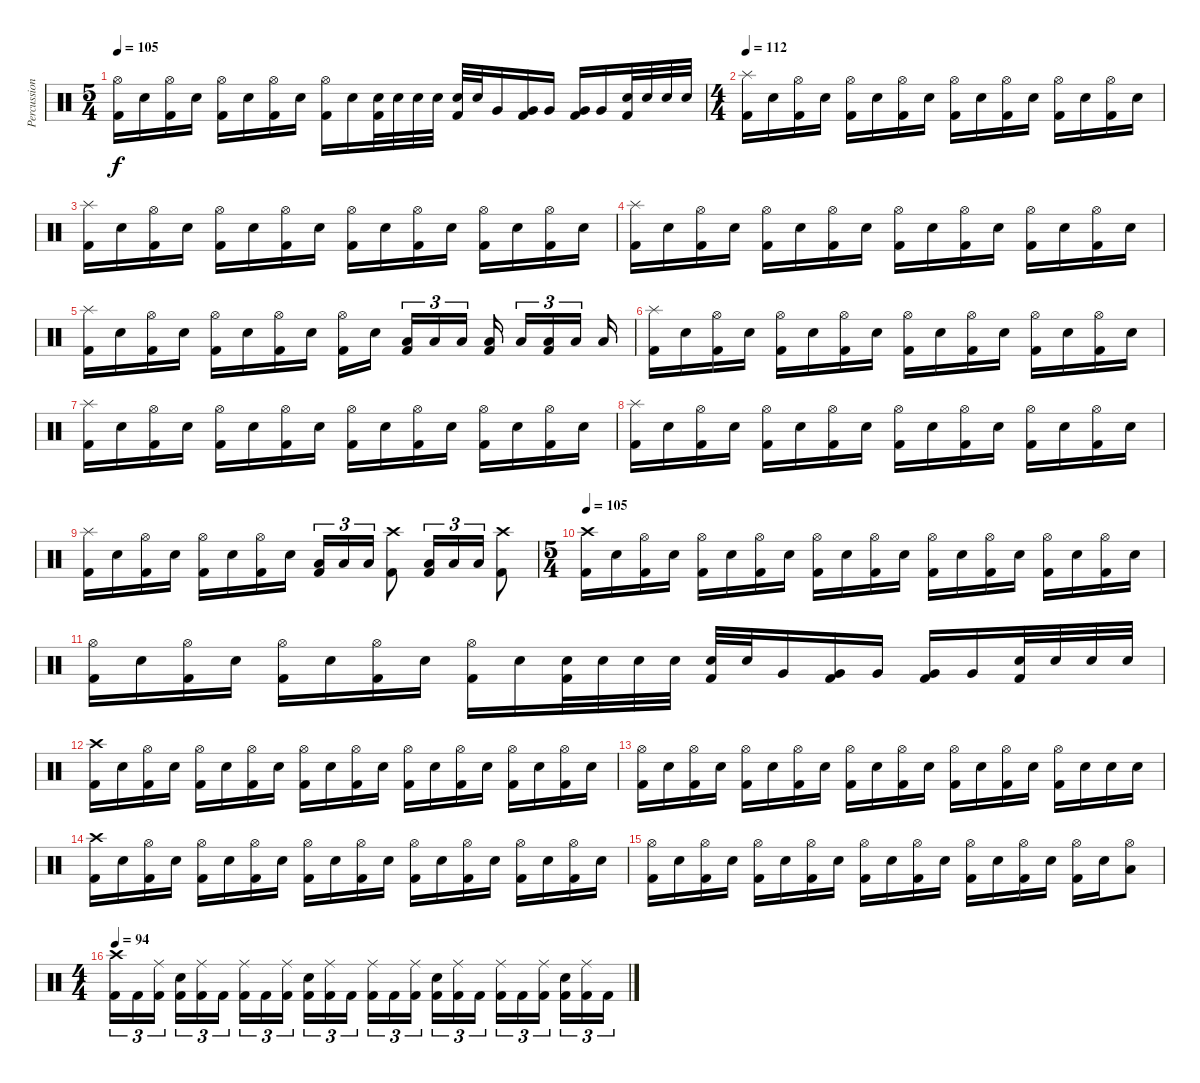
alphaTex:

\track ("Percussioni" "Percussion") {instrument percussion}
\staff {score}
\articulation defaults
\ts (5 4)
\tempo 105
\clef neutral
\ks c
("Hi-Hat (open)" "Kick (hit) 2").16{dy f} "Snare (hit) 2".16 ("Hi-Hat (open)" "Kick (hit) 2").16 "Snare (hit) 2".16 ("Hi-Hat (open)" "Kick (hit) 2").16 "Snare (hit) 2".16 ("Hi-Hat (open)" "Kick (hit) 2").16 "Snare (hit) 2".16 ("Hi-Hat (open)" "Kick (hit) 2").16 "Snare (hit) 2".16 ("Snare (hit) 2" "Kick (hit) 2").32 "Snare (hit) 2".32 "Snare (hit) 2".32 "Snare (hit) 2".32 ("Snare (hit) 2" "Kick (hit) 2").32 "Snare (hit) 2".32 "Very Low Tom (hit)".16 ("Very Low Tom (hit)" "Kick (hit) 2").16 "Very Low Tom (hit)".16 ("Very Low Tom (hit)" "Kick (hit) 2").16 "Very Low Tom (hit)".16 ("Snare (hit) 2" "Kick (hit) 2").32 "Snare (hit) 2".32 "Snare (hit) 2".32 "Snare (hit) 2".32 |
\ts (4 4)
\tempo 112
("Splash (hit)" "Kick (hit) 2").16 "Snare (hit) 2".16 ("Hi-Hat (open)" "Kick (hit) 2").16 "Snare (hit) 2".16 ("Hi-Hat (open)" "Kick (hit) 2").16 "Snare (hit) 2".16 ("Hi-Hat (open)" "Kick (hit) 2").16 "Snare (hit) 2".16 ("Hi-Hat (open)" "Kick (hit) 2").16 "Snare (hit) 2".16 ("Hi-Hat (open)" "Kick (hit) 2").16 "Snare (hit) 2".16 ("Hi-Hat (open)" "Kick (hit) 2").16 "Snare (hit) 2".16 ("Hi-Hat (open)" "Kick (hit) 2").16 "Snare (hit) 2".16 |
("Splash (hit)" "Kick (hit) 2").16 "Snare (hit) 2".16 ("Hi-Hat (open)" "Kick (hit) 2").16 "Snare (hit) 2".16 ("Hi-Hat (open)" "Kick (hit) 2").16 "Snare (hit) 2".16 ("Hi-Hat (open)" "Kick (hit) 2").16 "Snare (hit) 2".16 ("Hi-Hat (open)" "Kick (hit) 2").16 "Snare (hit) 2".16 ("Hi-Hat (open)" "Kick (hit) 2").16 "Snare (hit) 2".16 ("Hi-Hat (open)" "Kick (hit) 2").16 "Snare (hit) 2".16 ("Hi-Hat (open)" "Kick (hit) 2").16 "Snare (hit) 2".16 |
("Splash (hit)" "Kick (hit) 2").16 "Snare (hit) 2".16 ("Hi-Hat (open)" "Kick (hit) 2").16 "Snare (hit) 2".16 ("Hi-Hat (open)" "Kick (hit) 2").16 "Snare (hit) 2".16 ("Hi-Hat (open)" "Kick (hit) 2").16 "Snare (hit) 2".16 ("Hi-Hat (open)" "Kick (hit) 2").16 "Snare (hit) 2".16 ("Hi-Hat (open)" "Kick (hit) 2").16 "Snare (hit) 2".16 ("Hi-Hat (open)" "Kick (hit) 2").16 "Snare (hit) 2".16 ("Hi-Hat (open)" "Kick (hit) 2").16 "Snare (hit) 2".16 |
("Splash (hit)" "Kick (hit) 2").16 "Snare (hit) 2".16 ("Hi-Hat (open)" "Kick (hit) 2").16 "Snare (hit) 2".16 ("Hi-Hat (open)" "Kick (hit) 2").16 "Snare (hit) 2".16 ("Hi-Hat (open)" "Kick (hit) 2").16 "Snare (hit) 2".16 ("Hi-Hat (open)" "Kick (hit) 2").16 "Snare (hit) 2".16 ("Low Floor Tom (hit)" "Kick (hit) 2").16{tu (3 2)} "Low Floor Tom (hit)".16{tu (3 2)} "Low Floor Tom (hit)".16{tu (3 2)} ("Low Floor Tom (hit)" "Kick (hit) 2").16 "Low Floor Tom (hit)".16{tu (3 2)} ("Low Floor Tom (hit)" "Kick (hit) 2").16{tu (3 2)} "Low Floor Tom (hit)".16{tu (3 2)} "Low Floor Tom (hit)".16 |
("Splash (hit)" "Kick (hit) 2").16 "Snare (hit) 2".16 ("Hi-Hat (open)" "Kick (hit) 2").16 "Snare (hit) 2".16 ("Hi-Hat (open)" "Kick (hit) 2").16 "Snare (hit) 2".16 ("Hi-Hat (open)" "Kick (hit) 2").16 "Snare (hit) 2".16 ("Hi-Hat (open)" "Kick (hit) 2").16 "Snare (hit) 2".16 ("Hi-Hat (open)" "Kick (hit) 2").16 "Snare (hit) 2".16 ("Hi-Hat (open)" "Kick (hit) 2").16 "Snare (hit) 2".16 ("Hi-Hat (open)" "Kick (hit) 2").16 "Snare (hit) 2".16 |
("Splash (hit)" "Kick (hit) 2").16 "Snare (hit) 2".16 ("Hi-Hat (open)" "Kick (hit) 2").16 "Snare (hit) 2".16 ("Hi-Hat (open)" "Kick (hit) 2").16 "Snare (hit) 2".16 ("Hi-Hat (open)" "Kick (hit) 2").16 "Snare (hit) 2".16 ("Hi-Hat (open)" "Kick (hit) 2").16 "Snare (hit) 2".16 ("Hi-Hat (open)" "Kick (hit) 2").16 "Snare (hit) 2".16 ("Hi-Hat (open)" "Kick (hit) 2").16 "Snare (hit) 2".16 ("Hi-Hat (open)" "Kick (hit) 2").16 "Snare (hit) 2".16 |
("Splash (hit)" "Kick (hit) 2").16 "Snare (hit) 2".16 ("Hi-Hat (open)" "Kick (hit) 2").16 "Snare (hit) 2".16 ("Hi-Hat (open)" "Kick (hit) 2").16 "Snare (hit) 2".16 ("Hi-Hat (open)" "Kick (hit) 2").16 "Snare (hit) 2".16 ("Hi-Hat (open)" "Kick (hit) 2").16 "Snare (hit) 2".16 ("Hi-Hat (open)" "Kick (hit) 2").16 "Snare (hit) 2".16 ("Hi-Hat (open)" "Kick (hit) 2").16 "Snare (hit) 2".16 ("Hi-Hat (open)" "Kick (hit) 2").16 "Snare (hit) 2".16 |
("Splash (hit)" "Kick (hit) 2").16 "Snare (hit) 2".16 ("Hi-Hat (open)" "Kick (hit) 2").16 "Snare (hit) 2".16 ("Hi-Hat (open)" "Kick (hit) 2").16 "Snare (hit) 2".16 ("Hi-Hat (open)" "Kick (hit) 2").16 "Snare (hit) 2".16 ("Low Floor Tom (hit)" "Kick (hit) 2").16{tu (3 2)} "Low Floor Tom (hit)".16{tu (3 2)} "Low Floor Tom (hit)".16{tu (3 2)} ("Crash high (hit)" "Kick (hit) 2").8 ("Low Floor Tom (hit)" "Kick (hit) 2").16{tu (3 2)} "Low Floor Tom (hit)".16{tu (3 2)} "Low Floor Tom (hit)".16{tu (3 2)} ("Crash high (hit)" "Kick (hit) 2").8 |
\ts (5 4)
\tempo 105
("Crash high (hit)" "Kick (hit) 2").16 "Snare (hit) 2".16 ("Hi-Hat (open)" "Kick (hit) 2").16 "Snare (hit) 2".16 ("Hi-Hat (open)" "Kick (hit) 2").16 "Snare (hit) 2".16 ("Hi-Hat (open)" "Kick (hit) 2").16 "Snare (hit) 2".16 ("Hi-Hat (open)" "Kick (hit) 2").16 "Snare (hit) 2".16 ("Hi-Hat (open)" "Kick (hit) 2").16 "Snare (hit) 2".16 ("Hi-Hat (open)" "Kick (hit) 2").16 "Snare (hit) 2".16 ("Hi-Hat (open)" "Kick (hit) 2").16 "Snare (hit) 2".16 ("Hi-Hat (open)" "Kick (hit) 2").16 "Snare (hit) 2".16 ("Hi-Hat (open)" "Kick (hit) 2").16 "Snare (hit) 2".16 |
("Hi-Hat (open)" "Kick (hit) 2").16 "Snare (hit) 2".16 ("Hi-Hat (open)" "Kick (hit) 2").16 "Snare (hit) 2".16 ("Hi-Hat (open)" "Kick (hit) 2").16 "Snare (hit) 2".16 ("Hi-Hat (open)" "Kick (hit) 2").16 "Snare (hit) 2".16 ("Hi-Hat (open)" "Kick (hit) 2").16 "Snare (hit) 2".16 ("Snare (hit) 2" "Kick (hit) 2").32 "Snare (hit) 2".32 "Snare (hit) 2".32 "Snare (hit) 2".32 ("Snare (hit) 2" "Kick (hit) 2").32 "Snare (hit) 2".32 "Very Low Tom (hit)".16 ("Very Low Tom (hit)" "Kick (hit) 2").16 "Very Low Tom (hit)".16 ("Very Low Tom (hit)" "Kick (hit) 2").16 "Very Low Tom (hit)".16 ("Snare (hit) 2" "Kick (hit) 2").32 "Snare (hit) 2".32 "Snare (hit) 2".32 "Snare (hit) 2".32 |
("Crash high (hit)" "Kick (hit) 2").16 "Snare (hit) 2".16 ("Hi-Hat (open)" "Kick (hit) 2").16 "Snare (hit) 2".16 ("Hi-Hat (open)" "Kick (hit) 2").16 "Snare (hit) 2".16 ("Hi-Hat (open)" "Kick (hit) 2").16 "Snare (hit) 2".16 ("Hi-Hat (open)" "Kick (hit) 2").16 "Snare (hit) 2".16 ("Hi-Hat (open)" "Kick (hit) 2").16 "Snare (hit) 2".16 ("Hi-Hat (open)" "Kick (hit) 2").16 "Snare (hit) 2".16 ("Hi-Hat (open)" "Kick (hit) 2").16 "Snare (hit) 2".16 ("Hi-Hat (open)" "Kick (hit) 2").16 "Snare (hit) 2".16 ("Hi-Hat (open)" "Kick (hit) 2").16 "Snare (hit) 2".16 |
("Hi-Hat (open)" "Kick (hit) 2").16 "Snare (hit) 2".16 ("Hi-Hat (open)" "Kick (hit) 2").16 "Snare (hit) 2".16 ("Hi-Hat (open)" "Kick (hit) 2").16 "Snare (hit) 2".16 ("Hi-Hat (open)" "Kick (hit) 2").16 "Snare (hit) 2".16 ("Hi-Hat (open)" "Kick (hit) 2").16 "Snare (hit) 2".16 ("Hi-Hat (open)" "Kick (hit) 2").16 "Snare (hit) 2".16 ("Hi-Hat (open)" "Kick (hit) 2").16 "Snare (hit) 2".16 ("Hi-Hat (open)" "Kick (hit) 2").16 "Snare (hit) 2".16 ("Hi-Hat (open)" "Kick (hit) 2").16 "Snare (hit) 2".16 "Snare (hit) 2".16 "Snare (hit) 2".16 |
("Crash high (hit)" "Kick (hit) 2").16 "Snare (hit) 2".16 ("Hi-Hat (open)" "Kick (hit) 2").16 "Snare (hit) 2".16 ("Hi-Hat (open)" "Kick (hit) 2").16 "Snare (hit) 2".16 ("Hi-Hat (open)" "Kick (hit) 2").16 "Snare (hit) 2".16 ("Hi-Hat (open)" "Kick (hit) 2").16 "Snare (hit) 2".16 ("Hi-Hat (open)" "Kick (hit) 2").16 "Snare (hit) 2".16 ("Hi-Hat (open)" "Kick (hit) 2").16 "Snare (hit) 2".16 ("Hi-Hat (open)" "Kick (hit) 2").16 "Snare (hit) 2".16 ("Hi-Hat (open)" "Kick (hit) 2").16 "Snare (hit) 2".16 ("Hi-Hat (open)" "Kick (hit) 2").16 "Snare (hit) 2".16 |
("Hi-Hat (open)" "Kick (hit) 2").16 "Snare (hit) 2".16 ("Hi-Hat (open)" "Kick (hit) 2").16 "Snare (hit) 2".16 ("Hi-Hat (open)" "Kick (hit) 2").16 "Snare (hit) 2".16 ("Hi-Hat (open)" "Kick (hit) 2").16 "Snare (hit) 2".16 ("Hi-Hat (open)" "Kick (hit) 2").16 "Snare (hit) 2".16 ("Hi-Hat (open)" "Kick (hit) 2").16 "Snare (hit) 2".16 ("Hi-Hat (open)" "Kick (hit) 2").16 "Snare (hit) 2".16 ("Hi-Hat (open)" "Kick (hit) 2").16 "Snare (hit) 2".16 ("Hi-Hat (open)" "Kick (hit) 2").16 "Snare (hit) 2".16 ("Hi-Hat (open)" "Low Floor Tom (hit)").8 |
\ts (4 4)
\tempo 94
("Crash high (hit)" "Kick (hit) 2").16{tu (3 2)} "Kick (hit) 2".16{tu (3 2)} ("Ride (middle)" "Kick (hit) 2").16{tu (3 2)} ("Snare (hit) 2" "Kick (hit) 2").16{tu (3 2)} ("Ride (middle)" "Kick (hit) 2").16{tu (3 2)} "Kick (hit) 2".16{tu (3 2)} ("Ride (middle)" "Kick (hit) 2").16{tu (3 2)} "Kick (hit) 2".16{tu (3 2)} ("Ride (middle)" "Kick (hit) 2").16{tu (3 2)} ("Snare (hit) 2" "Kick (hit) 2").16{tu (3 2)} ("Ride (middle)" "Kick (hit) 2").16{tu (3 2)} "Kick (hit) 2".16{tu (3 2)} ("Ride (middle)" "Kick (hit) 2").16{tu (3 2)} "Kick (hit) 2".16{tu (3 2)} ("Ride (middle)" "Kick (hit) 2").16{tu (3 2)} ("Snare (hit) 2" "Kick (hit) 2").16{tu (3 2)} ("Ride (middle)" "Kick (hit) 2").16{tu (3 2)} "Kick (hit) 2".16{tu (3 2)} ("Ride (middle)" "Kick (hit) 2").16{tu (3 2)} "Kick (hit) 2".16{tu (3 2)} ("Ride (middle)" "Kick (hit) 2").16{tu (3 2)} ("Snare (hit) 2" "Kick (hit) 2").16{tu (3 2)} ("Ride (middle)" "Kick (hit) 2").16{tu (3 2)} "Kick (hit) 2".16{tu (3 2)}
